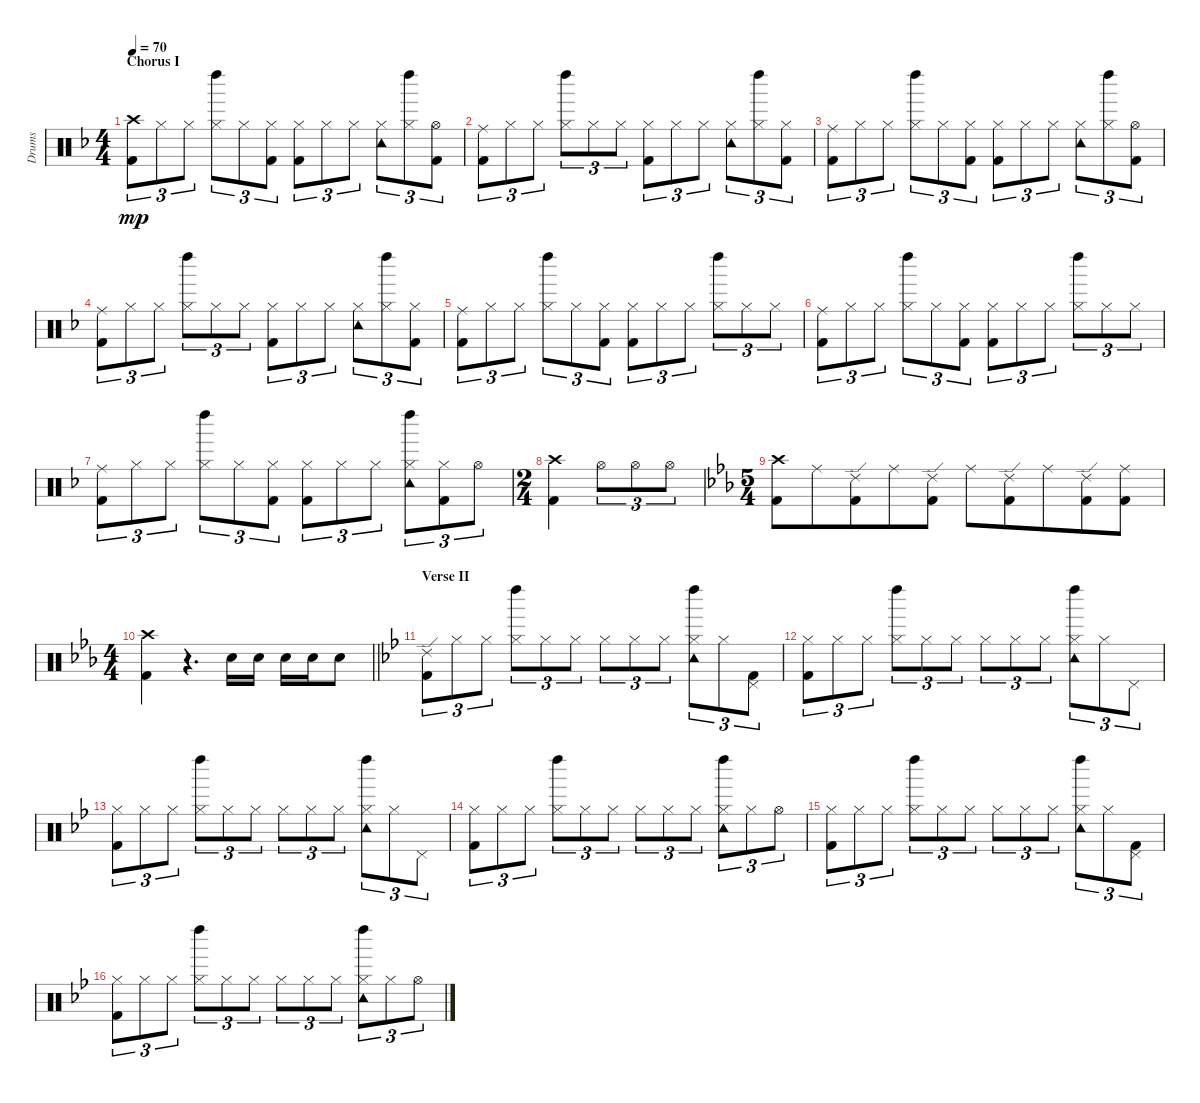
\track ("Drums" "Drums") {instrument percussion}
\staff {score}
\articulation defaults
\ts (4 4)
\section ("" "Chorus I")
\tempo 70
\clef neutral
\ks dminor
("Crash high (hit)" "Kick (hit) 2").8{tu (3 2) dy mp} "Hi-Hat (closed)".8{tu (3 2)} "Hi-Hat (closed)".8{tu (3 2)} ("Hi-Hat (closed)" "Left Maraca (hit)").8{tu (3 2)} "Hi-Hat (closed)".8{tu (3 2)} ("Hi-Hat (closed)" "Kick (hit) 2").8{tu (3 2)} ("Hi-Hat (closed)" "Kick (hit) 2").8{tu (3 2)} "Hi-Hat (closed)".8{tu (3 2)} "Hi-Hat (closed)".8{tu (3 2)} ("Hi-Hat (closed)" "Tambourine (hit)").8{tu (3 2)} ("Hi-Hat (closed)" "Left Maraca (hit)").8{tu (3 2)} ("Hi-Hat (open)" "Kick (hit) 2").8{tu (3 2)} |
("Ride (middle)" "Kick (hit) 2").8{tu (3 2)} "Hi-Hat (closed)".8{tu (3 2)} "Hi-Hat (closed)".8{tu (3 2)} ("Hi-Hat (closed)" "Left Maraca (hit)").8{tu (3 2)} "Hi-Hat (closed)".8{tu (3 2)} "Hi-Hat (closed)".8{tu (3 2)} ("Hi-Hat (closed)" "Kick (hit) 2").8{tu (3 2)} "Hi-Hat (closed)".8{tu (3 2)} "Hi-Hat (closed)".8{tu (3 2)} ("Hi-Hat (closed)" "Tambourine (hit)").8{tu (3 2)} ("Hi-Hat (closed)" "Left Maraca (hit)").8{tu (3 2)} ("Hi-Hat (closed)" "Kick (hit) 2").8{tu (3 2)} |
("Ride (middle)" "Kick (hit) 2").8{tu (3 2)} "Hi-Hat (closed)".8{tu (3 2)} "Hi-Hat (closed)".8{tu (3 2)} ("Hi-Hat (closed)" "Left Maraca (hit)").8{tu (3 2)} "Hi-Hat (closed)".8{tu (3 2)} ("Hi-Hat (closed)" "Kick (hit) 2").8{tu (3 2)} ("Hi-Hat (closed)" "Kick (hit) 2").8{tu (3 2)} "Hi-Hat (closed)".8{tu (3 2)} "Hi-Hat (closed)".8{tu (3 2)} ("Hi-Hat (closed)" "Tambourine (hit)").8{tu (3 2)} ("Hi-Hat (closed)" "Left Maraca (hit)").8{tu (3 2)} ("Hi-Hat (open)" "Kick (hit) 2").8{tu (3 2)} |
("Ride (middle)" "Kick (hit) 2").8{tu (3 2)} "Hi-Hat (closed)".8{tu (3 2)} "Hi-Hat (closed)".8{tu (3 2)} ("Hi-Hat (closed)" "Left Maraca (hit)").8{tu (3 2)} "Hi-Hat (closed)".8{tu (3 2)} "Hi-Hat (closed)".8{tu (3 2)} ("Hi-Hat (closed)" "Kick (hit) 2").8{tu (3 2)} "Hi-Hat (closed)".8{tu (3 2)} "Hi-Hat (closed)".8{tu (3 2)} ("Hi-Hat (closed)" "Tambourine (hit)").8{tu (3 2)} ("Hi-Hat (closed)" "Left Maraca (hit)").8{tu (3 2)} ("Hi-Hat (closed)" "Kick (hit) 2").8{tu (3 2)} |
("Ride (middle)" "Kick (hit) 2").8{tu (3 2)} "Hi-Hat (closed)".8{tu (3 2)} "Hi-Hat (closed)".8{tu (3 2)} ("Hi-Hat (closed)" "Left Maraca (hit)").8{tu (3 2)} "Hi-Hat (closed)".8{tu (3 2)} ("Hi-Hat (closed)" "Kick (hit) 2").8{tu (3 2)} ("Hi-Hat (closed)" "Kick (hit) 2").8{tu (3 2)} "Hi-Hat (closed)".8{tu (3 2)} "Hi-Hat (closed)".8{tu (3 2)} ("Hi-Hat (closed)" "Left Maraca (hit)").8{tu (3 2)} "Hi-Hat (closed)".8{tu (3 2)} "Hi-Hat (closed)".8{tu (3 2)} |
("Ride (middle)" "Kick (hit) 2").8{tu (3 2)} "Hi-Hat (closed)".8{tu (3 2)} "Hi-Hat (closed)".8{tu (3 2)} ("Hi-Hat (closed)" "Left Maraca (hit)").8{tu (3 2)} "Hi-Hat (closed)".8{tu (3 2)} ("Hi-Hat (closed)" "Kick (hit) 2").8{tu (3 2)} ("Hi-Hat (closed)" "Kick (hit) 2").8{tu (3 2)} "Hi-Hat (closed)".8{tu (3 2)} "Hi-Hat (closed)".8{tu (3 2)} ("Hi-Hat (closed)" "Left Maraca (hit)").8{tu (3 2)} "Hi-Hat (closed)".8{tu (3 2)} "Hi-Hat (closed)".8{tu (3 2)} |
("Ride (middle)" "Kick (hit) 2").8{tu (3 2)} "Hi-Hat (closed)".8{tu (3 2)} "Hi-Hat (closed)".8{tu (3 2)} ("Hi-Hat (closed)" "Left Maraca (hit)").8{tu (3 2)} "Hi-Hat (closed)".8{tu (3 2)} ("Hi-Hat (closed)" "Kick (hit) 2").8{tu (3 2)} ("Hi-Hat (closed)" "Kick (hit) 2").8{tu (3 2)} "Hi-Hat (closed)".8{tu (3 2)} "Hi-Hat (closed)".8{tu (3 2)} ("Hi-Hat (closed)" "Tambourine (hit)" "Left Maraca (hit)").8{tu (3 2)} ("Hi-Hat (closed)" "Kick (hit) 2").8{tu (3 2)} "Hi-Hat (open)".8{tu (3 2)} |
\ts (2 4)
("Crash high (hit)" "Kick (hit) 2").4 "Hi-Hat (open)".8{tu (3 2)} "Hi-Hat (open)".8{tu (3 2)} "Hi-Hat (open)".8{tu (3 2)} |
\ts (5 4)
\ks eb
("Crash high (hit)" "Kick (hit) 2").8{beam merge} "Ride (middle)".8{beam merge} ("Ride (edge) 2" "Kick (hit) 2").8{beam merge} "Ride (middle)".8{beam merge} ("Ride (edge) 2" "Kick (hit) 2").8{beam split} "Ride (middle)".8{beam merge} ("Ride (edge) 2" "Kick (hit) 2").8{beam merge} "Ride (middle)".8{beam merge} ("Ride (edge) 2" "Kick (hit) 2").8{beam merge} ("Ride (middle)" "Kick (hit) 2").8 |
\ts (4 4)
\barLineRight lightlight
("Crash high (hit)" "Kick (hit) 2").4 r.4{d} "Snare (hit) 2".16 "Snare (hit) 2".16 "Snare (hit) 2".16 "Snare (hit) 2".16 "Snare (hit) 2".8 |
\section ("" "Verse II")
\ks bb
("Ride (edge) 2" "Kick (hit) 2").8{tu (3 2)} "Hi-Hat (closed)".8{tu (3 2)} "Hi-Hat (closed)".8{tu (3 2)} ("Hi-Hat (closed)" "Left Maraca (hit)").8{tu (3 2)} "Hi-Hat (closed)".8{tu (3 2)} "Hi-Hat (closed)".8{tu (3 2)} "Hi-Hat (closed)".8{tu (3 2)} "Hi-Hat (closed)".8{tu (3 2)} "Hi-Hat (closed)".8{tu (3 2)} ("Hi-Hat (closed)" "Tambourine (hit)" "Left Maraca (hit)").8{tu (3 2)} "Hi-Hat (closed)".8{tu (3 2)} ("Pedal Hi-Hat (hit)" "Kick (hit) 2").8{tu (3 2)} |
("Hi-Hat (closed)" "Kick (hit) 2").8{tu (3 2)} "Hi-Hat (closed)".8{tu (3 2)} "Hi-Hat (closed)".8{tu (3 2)} ("Hi-Hat (closed)" "Left Maraca (hit)").8{tu (3 2)} "Hi-Hat (closed)".8{tu (3 2)} "Hi-Hat (closed)".8{tu (3 2)} "Hi-Hat (closed)".8{tu (3 2)} "Hi-Hat (closed)".8{tu (3 2)} "Hi-Hat (closed)".8{tu (3 2)} ("Hi-Hat (closed)" "Tambourine (hit)" "Left Maraca (hit)").8{tu (3 2)} "Hi-Hat (closed)".8{tu (3 2)} "Pedal Hi-Hat (hit)".8{tu (3 2)} |
("Hi-Hat (closed)" "Kick (hit) 2").8{tu (3 2)} "Hi-Hat (closed)".8{tu (3 2)} "Hi-Hat (closed)".8{tu (3 2)} ("Hi-Hat (closed)" "Left Maraca (hit)").8{tu (3 2)} "Hi-Hat (closed)".8{tu (3 2)} "Hi-Hat (closed)".8{tu (3 2)} "Hi-Hat (closed)".8{tu (3 2)} "Hi-Hat (closed)".8{tu (3 2)} "Hi-Hat (closed)".8{tu (3 2)} ("Hi-Hat (closed)" "Tambourine (hit)" "Left Maraca (hit)").8{tu (3 2)} "Hi-Hat (closed)".8{tu (3 2)} "Pedal Hi-Hat (hit)".8{tu (3 2)} |
("Hi-Hat (closed)" "Kick (hit) 2").8{tu (3 2)} "Hi-Hat (closed)".8{tu (3 2)} "Hi-Hat (closed)".8{tu (3 2)} ("Hi-Hat (closed)" "Left Maraca (hit)").8{tu (3 2)} "Hi-Hat (closed)".8{tu (3 2)} "Hi-Hat (closed)".8{tu (3 2)} "Hi-Hat (closed)".8{tu (3 2)} "Hi-Hat (closed)".8{tu (3 2)} "Hi-Hat (closed)".8{tu (3 2)} ("Hi-Hat (closed)" "Tambourine (hit)" "Left Maraca (hit)").8{tu (3 2)} "Hi-Hat (closed)".8{tu (3 2)} "Hi-Hat (open)".8{tu (3 2)} |
("Hi-Hat (closed)" "Kick (hit) 2").8{tu (3 2)} "Hi-Hat (closed)".8{tu (3 2)} "Hi-Hat (closed)".8{tu (3 2)} ("Hi-Hat (closed)" "Left Maraca (hit)").8{tu (3 2)} "Hi-Hat (closed)".8{tu (3 2)} "Hi-Hat (closed)".8{tu (3 2)} "Hi-Hat (closed)".8{tu (3 2)} "Hi-Hat (closed)".8{tu (3 2)} "Hi-Hat (closed)".8{tu (3 2)} ("Hi-Hat (closed)" "Tambourine (hit)" "Left Maraca (hit)").8{tu (3 2)} "Hi-Hat (closed)".8{tu (3 2)} ("Pedal Hi-Hat (hit)" "Kick (hit) 2").8{tu (3 2)} |
("Hi-Hat (closed)" "Kick (hit) 2").8{tu (3 2)} "Hi-Hat (closed)".8{tu (3 2)} "Hi-Hat (closed)".8{tu (3 2)} ("Hi-Hat (closed)" "Left Maraca (hit)").8{tu (3 2)} "Hi-Hat (closed)".8{tu (3 2)} "Hi-Hat (closed)".8{tu (3 2)} "Hi-Hat (closed)".8{tu (3 2)} "Hi-Hat (closed)".8{tu (3 2)} "Hi-Hat (closed)".8{tu (3 2)} ("Hi-Hat (closed)" "Tambourine (hit)" "Left Maraca (hit)").8{tu (3 2)} "Hi-Hat (closed)".8{tu (3 2)} "Hi-Hat (open)".8{tu (3 2)}
